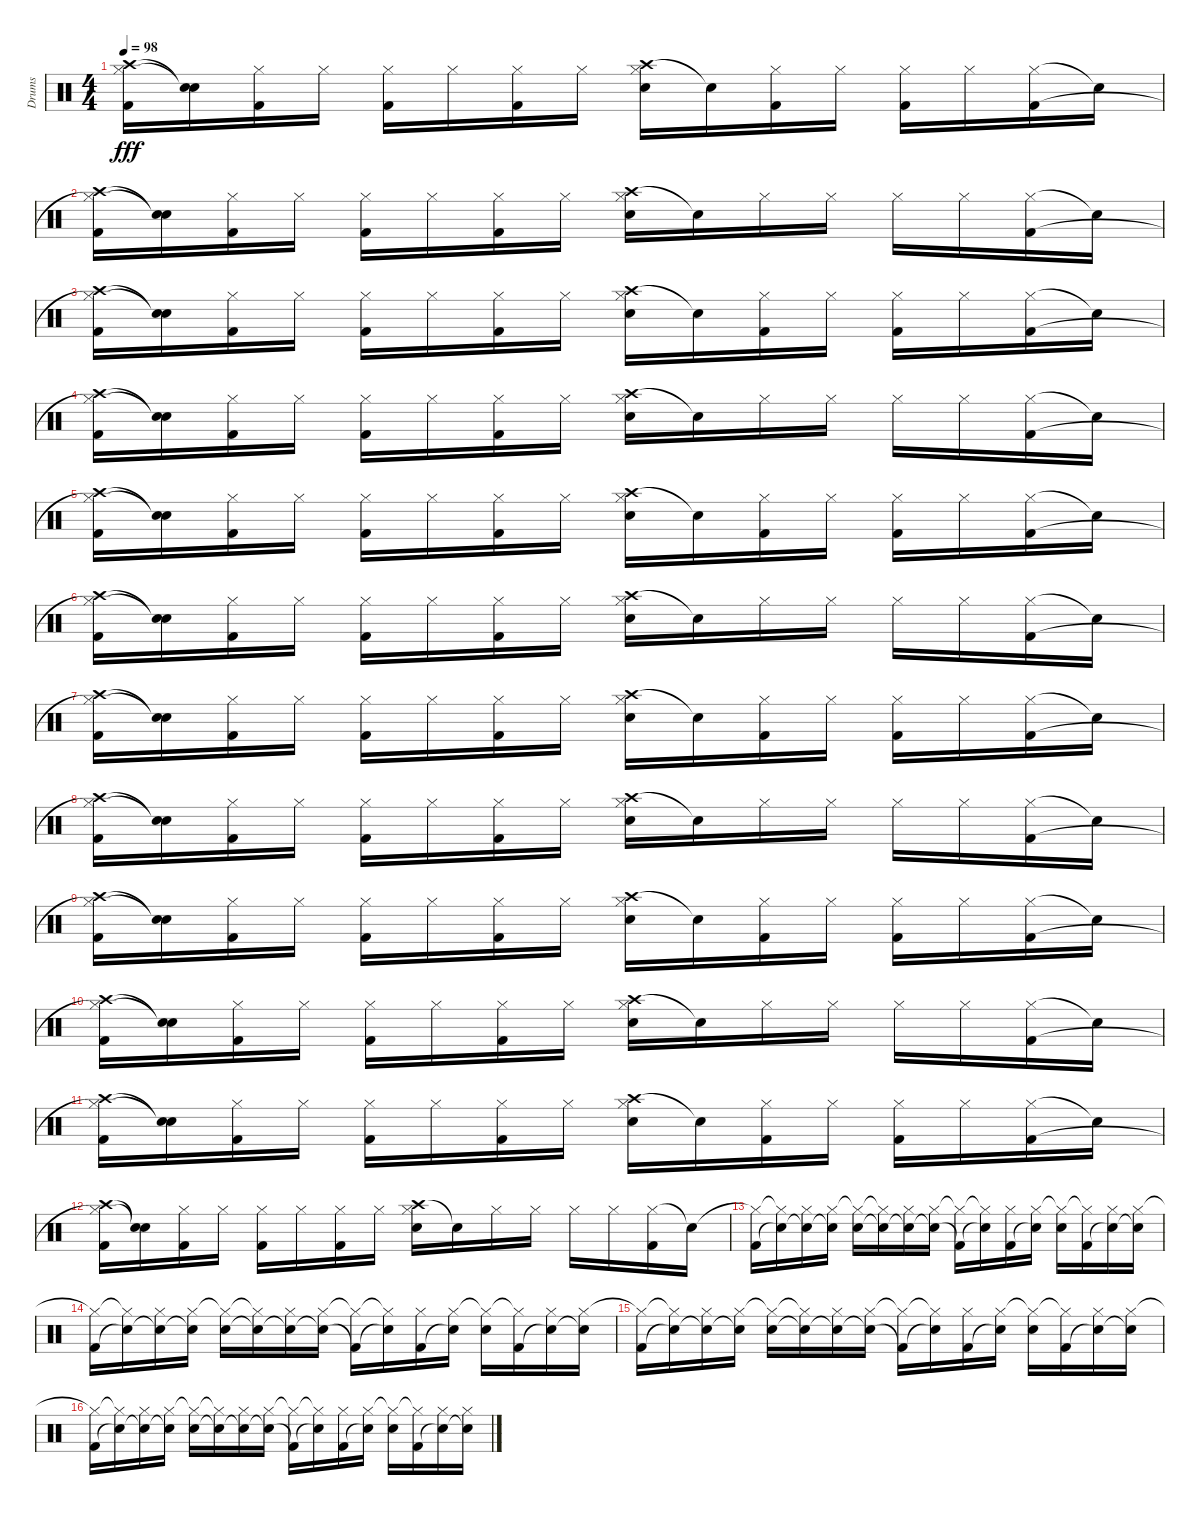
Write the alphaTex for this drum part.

\track ("Drums" "Drums") {instrument percussion}
\staff {score}
\articulation defaults
\ts (4 4)
\tempo 98
\clef neutral
\ks c
("Crash high (hit)" "Hi-Hat (closed)"{t} "Kick (hit) 2").16{dy fff} ("Snare (hit)"{t} "Snare (hit)"{t}).16 ("Hi-Hat (closed)" "Kick (hit) 2").16 "Hi-Hat (closed)".16 ("Hi-Hat (closed)" "Kick (hit) 2").16 "Hi-Hat (closed)".16 ("Hi-Hat (closed)" "Kick (hit) 2").16 "Hi-Hat (closed)".16 ("Crash high (hit)" "Hi-Hat (closed)" "Electric Snare (hit)").16 "Snare (hit)"{t}.16 ("Hi-Hat (closed)" "Kick (hit) 2").16 "Hi-Hat (closed)".16 ("Hi-Hat (closed)" "Kick (hit) 2").16 "Hi-Hat (closed)".16 ("Hi-Hat (closed)" "Kick (hit) 2").16 "Snare (hit)"{t}.16 |
("Crash high (hit)" "Hi-Hat (closed)"{t} "Kick (hit) 2").16 ("Snare (hit)"{t} "Snare (hit)"{t}).16 ("Hi-Hat (closed)" "Kick (hit) 2").16 "Hi-Hat (closed)".16 ("Hi-Hat (closed)" "Kick (hit) 2").16 "Hi-Hat (closed)".16 ("Hi-Hat (closed)" "Kick (hit) 2").16 "Hi-Hat (closed)".16 ("Crash high (hit)" "Hi-Hat (closed)" "Electric Snare (hit)").16 "Snare (hit)"{t}.16 "Hi-Hat (closed)".16 "Hi-Hat (closed)".16 "Hi-Hat (closed)".16 "Hi-Hat (closed)".16 ("Hi-Hat (closed)" "Kick (hit) 2").16 "Snare (hit)"{t}.16 |
("Crash high (hit)" "Hi-Hat (closed)"{t} "Kick (hit) 2").16 ("Snare (hit)"{t} "Snare (hit)"{t}).16 ("Hi-Hat (closed)" "Kick (hit) 2").16 "Hi-Hat (closed)".16 ("Hi-Hat (closed)" "Kick (hit) 2").16 "Hi-Hat (closed)".16 ("Hi-Hat (closed)" "Kick (hit) 2").16 "Hi-Hat (closed)".16 ("Crash high (hit)" "Hi-Hat (closed)" "Electric Snare (hit)").16 "Snare (hit)"{t}.16 ("Hi-Hat (closed)" "Kick (hit) 2").16 "Hi-Hat (closed)".16 ("Hi-Hat (closed)" "Kick (hit) 2").16 "Hi-Hat (closed)".16 ("Hi-Hat (closed)" "Kick (hit) 2").16 "Snare (hit)"{t}.16 |
("Crash high (hit)" "Hi-Hat (closed)"{t} "Kick (hit) 2").16 ("Snare (hit)"{t} "Snare (hit)"{t}).16 ("Hi-Hat (closed)" "Kick (hit) 2").16 "Hi-Hat (closed)".16 ("Hi-Hat (closed)" "Kick (hit) 2").16 "Hi-Hat (closed)".16 ("Hi-Hat (closed)" "Kick (hit) 2").16 "Hi-Hat (closed)".16 ("Crash high (hit)" "Hi-Hat (closed)" "Electric Snare (hit)").16 "Snare (hit)"{t}.16 "Hi-Hat (closed)".16 "Hi-Hat (closed)".16 "Hi-Hat (closed)".16 "Hi-Hat (closed)".16 ("Hi-Hat (closed)" "Kick (hit) 2").16 "Snare (hit)"{t}.16 |
("Crash high (hit)" "Hi-Hat (closed)"{t} "Kick (hit) 2").16 ("Snare (hit)"{t} "Snare (hit)"{t}).16 ("Hi-Hat (closed)" "Kick (hit) 2").16 "Hi-Hat (closed)".16 ("Hi-Hat (closed)" "Kick (hit) 2").16 "Hi-Hat (closed)".16 ("Hi-Hat (closed)" "Kick (hit) 2").16 "Hi-Hat (closed)".16 ("Crash high (hit)" "Hi-Hat (closed)" "Electric Snare (hit)").16 "Snare (hit)"{t}.16 ("Hi-Hat (closed)" "Kick (hit) 2").16 "Hi-Hat (closed)".16 ("Hi-Hat (closed)" "Kick (hit) 2").16 "Hi-Hat (closed)".16 ("Hi-Hat (closed)" "Kick (hit) 2").16 "Snare (hit)"{t}.16 |
("Crash high (hit)" "Hi-Hat (closed)"{t} "Kick (hit) 2").16 ("Snare (hit)"{t} "Snare (hit)"{t}).16 ("Hi-Hat (closed)" "Kick (hit) 2").16 "Hi-Hat (closed)".16 ("Hi-Hat (closed)" "Kick (hit) 2").16 "Hi-Hat (closed)".16 ("Hi-Hat (closed)" "Kick (hit) 2").16 "Hi-Hat (closed)".16 ("Crash high (hit)" "Hi-Hat (closed)" "Electric Snare (hit)").16 "Snare (hit)"{t}.16 "Hi-Hat (closed)".16 "Hi-Hat (closed)".16 "Hi-Hat (closed)".16 "Hi-Hat (closed)".16 ("Hi-Hat (closed)" "Kick (hit) 2").16 "Snare (hit)"{t}.16 |
("Crash high (hit)" "Hi-Hat (closed)"{t} "Kick (hit) 2").16 ("Snare (hit)"{t} "Snare (hit)"{t}).16 ("Hi-Hat (closed)" "Kick (hit) 2").16 "Hi-Hat (closed)".16 ("Hi-Hat (closed)" "Kick (hit) 2").16 "Hi-Hat (closed)".16 ("Hi-Hat (closed)" "Kick (hit) 2").16 "Hi-Hat (closed)".16 ("Crash high (hit)" "Hi-Hat (closed)" "Electric Snare (hit)").16 "Snare (hit)"{t}.16 ("Hi-Hat (closed)" "Kick (hit) 2").16 "Hi-Hat (closed)".16 ("Hi-Hat (closed)" "Kick (hit) 2").16 "Hi-Hat (closed)".16 ("Hi-Hat (closed)" "Kick (hit) 2").16 "Snare (hit)"{t}.16 |
("Crash high (hit)" "Hi-Hat (closed)"{t} "Kick (hit) 2").16 ("Snare (hit)"{t} "Snare (hit)"{t}).16 ("Hi-Hat (closed)" "Kick (hit) 2").16 "Hi-Hat (closed)".16 ("Hi-Hat (closed)" "Kick (hit) 2").16 "Hi-Hat (closed)".16 ("Hi-Hat (closed)" "Kick (hit) 2").16 "Hi-Hat (closed)".16 ("Crash high (hit)" "Hi-Hat (closed)" "Electric Snare (hit)").16 "Snare (hit)"{t}.16 "Hi-Hat (closed)".16 "Hi-Hat (closed)".16 "Hi-Hat (closed)".16 "Hi-Hat (closed)".16 ("Hi-Hat (closed)" "Kick (hit) 2").16 "Snare (hit)"{t}.16 |
("Crash high (hit)" "Hi-Hat (closed)"{t} "Kick (hit) 2").16 ("Snare (hit)"{t} "Snare (hit)"{t}).16 ("Hi-Hat (closed)" "Kick (hit) 2").16 "Hi-Hat (closed)".16 ("Hi-Hat (closed)" "Kick (hit) 2").16 "Hi-Hat (closed)".16 ("Hi-Hat (closed)" "Kick (hit) 2").16 "Hi-Hat (closed)".16 ("Crash high (hit)" "Hi-Hat (closed)" "Electric Snare (hit)").16 "Snare (hit)"{t}.16 ("Hi-Hat (closed)" "Kick (hit) 2").16 "Hi-Hat (closed)".16 ("Hi-Hat (closed)" "Kick (hit) 2").16 "Hi-Hat (closed)".16 ("Hi-Hat (closed)" "Kick (hit) 2").16 "Snare (hit)"{t}.16 |
("Crash high (hit)" "Hi-Hat (closed)"{t} "Kick (hit) 2").16 ("Snare (hit)"{t} "Snare (hit)"{t}).16 ("Hi-Hat (closed)" "Kick (hit) 2").16 "Hi-Hat (closed)".16 ("Hi-Hat (closed)" "Kick (hit) 2").16 "Hi-Hat (closed)".16 ("Hi-Hat (closed)" "Kick (hit) 2").16 "Hi-Hat (closed)".16 ("Crash high (hit)" "Hi-Hat (closed)" "Electric Snare (hit)").16 "Snare (hit)"{t}.16 "Hi-Hat (closed)".16 "Hi-Hat (closed)".16 "Hi-Hat (closed)".16 "Hi-Hat (closed)".16 ("Hi-Hat (closed)" "Kick (hit) 2").16 "Snare (hit)"{t}.16 |
("Crash high (hit)" "Hi-Hat (closed)"{t} "Kick (hit) 2").16 ("Snare (hit)"{t} "Snare (hit)"{t}).16 ("Hi-Hat (closed)" "Kick (hit) 2").16 "Hi-Hat (closed)".16 ("Hi-Hat (closed)" "Kick (hit) 2").16 "Hi-Hat (closed)".16 ("Hi-Hat (closed)" "Kick (hit) 2").16 "Hi-Hat (closed)".16 ("Crash high (hit)" "Hi-Hat (closed)" "Electric Snare (hit)").16 "Snare (hit)"{t}.16 ("Hi-Hat (closed)" "Kick (hit) 2").16 "Hi-Hat (closed)".16 ("Hi-Hat (closed)" "Kick (hit) 2").16 "Hi-Hat (closed)".16 ("Hi-Hat (closed)" "Kick (hit) 2").16 "Snare (hit)"{t}.16 |
("Crash high (hit)" "Hi-Hat (closed)"{t} "Kick (hit) 2").16 ("Snare (hit)"{t} "Snare (hit)"{t}).16 ("Hi-Hat (closed)" "Kick (hit) 2").16 "Hi-Hat (closed)".16 ("Hi-Hat (closed)" "Kick (hit) 2").16 "Hi-Hat (closed)".16 ("Hi-Hat (closed)" "Kick (hit) 2").16 "Hi-Hat (closed)".16 ("Crash high (hit)" "Hi-Hat (closed)" "Electric Snare (hit)").16 "Snare (hit)"{t}.16 "Hi-Hat (closed)".16 "Hi-Hat (closed)".16 "Hi-Hat (closed)".16 "Hi-Hat (closed)".16 ("Hi-Hat (closed)" "Kick (hit) 2").16 "Snare (hit)"{t}.16 |
("Hi-Hat (closed)"{t} "Kick (hit) 2").16 ("Hi-Hat (closed)"{t} "Snare (hit)"{t}).16 ("Hi-Hat (closed)" "Snare (hit)"{t}).16 ("Hi-Hat (closed)" "Snare (hit)"{t}).16 ("Hi-Hat (closed)"{t} "Electric Snare (hit)").16 ("Hi-Hat (closed)"{t} "Snare (hit)"{t}).16 ("Hi-Hat (closed)" "Snare (hit)"{t}).16 ("Hi-Hat (closed)" "Snare (hit)"{t}).16 ("Hi-Hat (closed)"{t} "Kick (hit) 2"{t}).16 ("Hi-Hat (closed)"{t} "Snare (hit)"{t}).16 ("Hi-Hat (closed)" "Kick (hit) 2").16 ("Hi-Hat (closed)" "Electric Snare (hit)"{t}).16 ("Hi-Hat (closed)"{t} "Electric Snare (hit)").16 ("Hi-Hat (closed)"{t} "Kick (hit) 2").16 ("Hi-Hat (closed)" "Electric Snare (hit)"{t}).16 ("Hi-Hat (closed)" "Snare (hit)"{t}).16 |
("Hi-Hat (closed)"{t} "Kick (hit) 2").16 ("Hi-Hat (closed)"{t} "Snare (hit)"{t}).16 ("Hi-Hat (closed)" "Snare (hit)"{t}).16 ("Hi-Hat (closed)" "Snare (hit)"{t}).16 ("Hi-Hat (closed)"{t} "Electric Snare (hit)").16 ("Hi-Hat (closed)"{t} "Snare (hit)"{t}).16 ("Hi-Hat (closed)" "Snare (hit)"{t}).16 ("Hi-Hat (closed)" "Snare (hit)"{t}).16 ("Hi-Hat (closed)"{t} "Kick (hit) 2"{t}).16 ("Hi-Hat (closed)"{t} "Snare (hit)"{t}).16 ("Hi-Hat (closed)" "Kick (hit) 2").16 ("Hi-Hat (closed)" "Electric Snare (hit)"{t}).16 ("Hi-Hat (closed)"{t} "Electric Snare (hit)").16 ("Hi-Hat (closed)"{t} "Kick (hit) 2").16 ("Hi-Hat (closed)" "Electric Snare (hit)"{t}).16 ("Hi-Hat (closed)" "Snare (hit)"{t}).16 |
("Hi-Hat (closed)"{t} "Kick (hit) 2").16 ("Hi-Hat (closed)"{t} "Snare (hit)"{t}).16 ("Hi-Hat (closed)" "Snare (hit)"{t}).16 ("Hi-Hat (closed)" "Snare (hit)"{t}).16 ("Hi-Hat (closed)"{t} "Electric Snare (hit)").16 ("Hi-Hat (closed)"{t} "Snare (hit)"{t}).16 ("Hi-Hat (closed)" "Snare (hit)"{t}).16 ("Hi-Hat (closed)" "Snare (hit)"{t}).16 ("Hi-Hat (closed)"{t} "Kick (hit) 2"{t}).16 ("Hi-Hat (closed)"{t} "Snare (hit)"{t}).16 ("Hi-Hat (closed)" "Kick (hit) 2").16 ("Hi-Hat (closed)" "Electric Snare (hit)"{t}).16 ("Hi-Hat (closed)"{t} "Electric Snare (hit)").16 ("Hi-Hat (closed)"{t} "Kick (hit) 2").16 ("Hi-Hat (closed)" "Electric Snare (hit)"{t}).16 ("Hi-Hat (closed)" "Snare (hit)"{t}).16 |
("Hi-Hat (closed)"{t} "Kick (hit) 2").16 ("Hi-Hat (closed)"{t} "Snare (hit)"{t}).16 ("Hi-Hat (closed)" "Snare (hit)"{t}).16 ("Hi-Hat (closed)" "Snare (hit)"{t}).16 ("Hi-Hat (closed)"{t} "Electric Snare (hit)").16 ("Hi-Hat (closed)"{t} "Snare (hit)"{t}).16 ("Hi-Hat (closed)" "Snare (hit)"{t}).16 ("Hi-Hat (closed)" "Snare (hit)"{t}).16 ("Hi-Hat (closed)"{t} "Kick (hit) 2"{t}).16 ("Hi-Hat (closed)"{t} "Snare (hit)"{t}).16 ("Hi-Hat (closed)" "Kick (hit) 2").16 ("Hi-Hat (closed)" "Electric Snare (hit)"{t}).16 ("Hi-Hat (closed)"{t} "Electric Snare (hit)").16 ("Hi-Hat (closed)"{t} "Kick (hit) 2").16 ("Hi-Hat (closed)" "Electric Snare (hit)"{t}).16 ("Hi-Hat (closed)" "Snare (hit)"{t}).16
